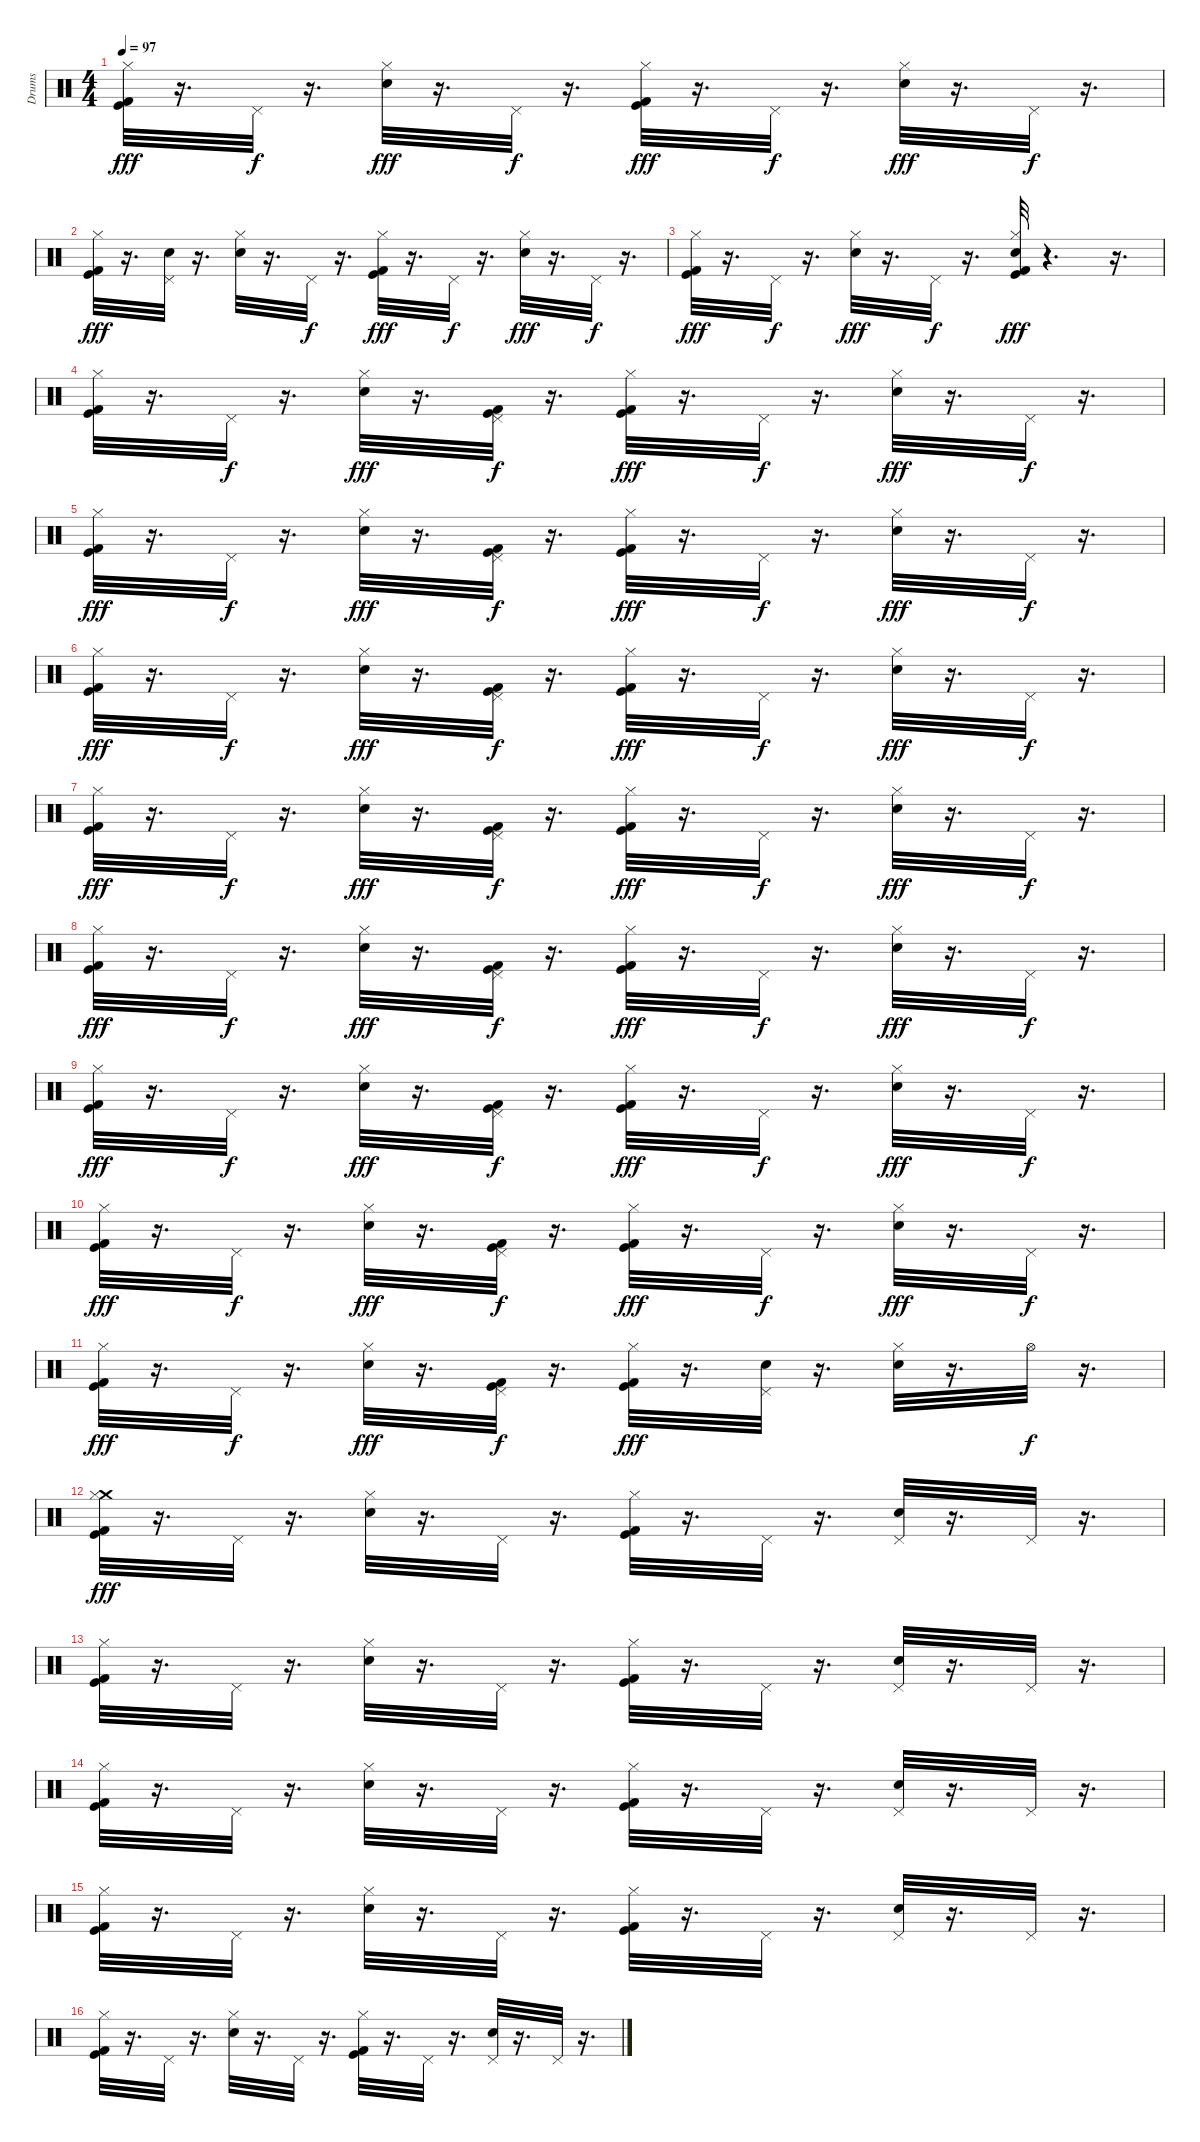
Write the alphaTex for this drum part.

\track ("Drums" "Drums") {instrument percussion}
\staff {score}
\articulation defaults
\ts (4 4)
\tempo 97
\clef neutral
\ks c
("Kick (hit)" "Kick (hit) 2" "Hi-Hat (closed)").32{dy fff} r.16{d} "Pedal Hi-Hat (hit)".32{dy f} r.16{d} ("Hi-Hat (closed)" "Snare (hit) 2").32{dy fff} r.16{d} "Pedal Hi-Hat (hit)".32{dy f} r.16{d} ("Kick (hit)" "Kick (hit) 2" "Hi-Hat (closed)").32{dy fff} r.16{d} "Pedal Hi-Hat (hit)".32{dy f} r.16{d} ("Hi-Hat (closed)" "Snare (hit) 2").32{dy fff} r.16{d} "Pedal Hi-Hat (hit)".32{dy f} r.16{d} |
("Kick (hit)" "Kick (hit) 2" "Hi-Hat (closed)").32{dy fff} r.16{d} ("Snare (hit) 2" "Pedal Hi-Hat (hit)").32 r.16{d} ("Hi-Hat (closed)" "Snare (hit) 2").32 r.16{d} "Pedal Hi-Hat (hit)".32{dy f} r.16{d} ("Kick (hit)" "Kick (hit) 2" "Hi-Hat (closed)").32{dy fff} r.16{d} "Pedal Hi-Hat (hit)".32{dy f} r.16{d} ("Hi-Hat (closed)" "Snare (hit) 2").32{dy fff} r.16{d} "Pedal Hi-Hat (hit)".32{dy f} r.16{d} |
("Kick (hit)" "Kick (hit) 2" "Hi-Hat (closed)").32{dy fff} r.16{d} "Pedal Hi-Hat (hit)".32{dy f} r.16{d} ("Hi-Hat (closed)" "Snare (hit) 2").32{dy fff} r.16{d} "Pedal Hi-Hat (hit)".32{dy f} r.16{d} ("Snare (hit) 2" "Kick (hit)" "Kick (hit) 2" "Hi-Hat (closed)").32{dy fff} r.4{d} r.16{d} |
("Kick (hit)" "Kick (hit) 2" "Hi-Hat (closed)").32 r.16{d} "Pedal Hi-Hat (hit)".32{dy f} r.16{d} ("Hi-Hat (closed)" "Snare (hit) 2").32{dy fff} r.16{d} ("Kick (hit) 2" "Kick (hit)" "Pedal Hi-Hat (hit)").32{dy f} r.16{d} ("Kick (hit)" "Kick (hit) 2" "Hi-Hat (closed)").32{dy fff} r.16{d} "Pedal Hi-Hat (hit)".32{dy f} r.16{d} ("Hi-Hat (closed)" "Snare (hit) 2").32{dy fff} r.16{d} "Pedal Hi-Hat (hit)".32{dy f} r.16{d} |
("Kick (hit)" "Kick (hit) 2" "Hi-Hat (closed)").32{dy fff} r.16{d} "Pedal Hi-Hat (hit)".32{dy f} r.16{d} ("Hi-Hat (closed)" "Snare (hit) 2").32{dy fff} r.16{d} ("Kick (hit) 2" "Kick (hit)" "Pedal Hi-Hat (hit)").32{dy f} r.16{d} ("Kick (hit)" "Kick (hit) 2" "Hi-Hat (closed)").32{dy fff} r.16{d} "Pedal Hi-Hat (hit)".32{dy f} r.16{d} ("Hi-Hat (closed)" "Snare (hit) 2").32{dy fff} r.16{d} "Pedal Hi-Hat (hit)".32{dy f} r.16{d} |
("Kick (hit)" "Kick (hit) 2" "Hi-Hat (closed)").32{dy fff} r.16{d} "Pedal Hi-Hat (hit)".32{dy f} r.16{d} ("Hi-Hat (closed)" "Snare (hit) 2").32{dy fff} r.16{d} ("Kick (hit) 2" "Kick (hit)" "Pedal Hi-Hat (hit)").32{dy f} r.16{d} ("Kick (hit)" "Kick (hit) 2" "Hi-Hat (closed)").32{dy fff} r.16{d} "Pedal Hi-Hat (hit)".32{dy f} r.16{d} ("Hi-Hat (closed)" "Snare (hit) 2").32{dy fff} r.16{d} "Pedal Hi-Hat (hit)".32{dy f} r.16{d} |
("Kick (hit)" "Kick (hit) 2" "Hi-Hat (closed)").32{dy fff} r.16{d} "Pedal Hi-Hat (hit)".32{dy f} r.16{d} ("Hi-Hat (closed)" "Snare (hit) 2").32{dy fff} r.16{d} ("Kick (hit) 2" "Kick (hit)" "Pedal Hi-Hat (hit)").32{dy f} r.16{d} ("Kick (hit)" "Kick (hit) 2" "Hi-Hat (closed)").32{dy fff} r.16{d} "Pedal Hi-Hat (hit)".32{dy f} r.16{d} ("Hi-Hat (closed)" "Snare (hit) 2").32{dy fff} r.16{d} "Pedal Hi-Hat (hit)".32{dy f} r.16{d} |
("Kick (hit)" "Kick (hit) 2" "Hi-Hat (closed)").32{dy fff} r.16{d} "Pedal Hi-Hat (hit)".32{dy f} r.16{d} ("Hi-Hat (closed)" "Snare (hit) 2").32{dy fff} r.16{d} ("Kick (hit) 2" "Kick (hit)" "Pedal Hi-Hat (hit)").32{dy f} r.16{d} ("Kick (hit)" "Kick (hit) 2" "Hi-Hat (closed)").32{dy fff} r.16{d} "Pedal Hi-Hat (hit)".32{dy f} r.16{d} ("Hi-Hat (closed)" "Snare (hit) 2").32{dy fff} r.16{d} "Pedal Hi-Hat (hit)".32{dy f} r.16{d} |
("Kick (hit)" "Kick (hit) 2" "Hi-Hat (closed)").32{dy fff} r.16{d} "Pedal Hi-Hat (hit)".32{dy f} r.16{d} ("Hi-Hat (closed)" "Snare (hit) 2").32{dy fff} r.16{d} ("Kick (hit) 2" "Kick (hit)" "Pedal Hi-Hat (hit)").32{dy f} r.16{d} ("Kick (hit)" "Kick (hit) 2" "Hi-Hat (closed)").32{dy fff} r.16{d} "Pedal Hi-Hat (hit)".32{dy f} r.16{d} ("Hi-Hat (closed)" "Snare (hit) 2").32{dy fff} r.16{d} "Pedal Hi-Hat (hit)".32{dy f} r.16{d} |
("Kick (hit)" "Kick (hit) 2" "Hi-Hat (closed)").32{dy fff} r.16{d} "Pedal Hi-Hat (hit)".32{dy f} r.16{d} ("Hi-Hat (closed)" "Snare (hit) 2").32{dy fff} r.16{d} ("Kick (hit) 2" "Kick (hit)" "Pedal Hi-Hat (hit)").32{dy f} r.16{d} ("Kick (hit)" "Kick (hit) 2" "Hi-Hat (closed)").32{dy fff} r.16{d} "Pedal Hi-Hat (hit)".32{dy f} r.16{d} ("Hi-Hat (closed)" "Snare (hit) 2").32{dy fff} r.16{d} "Pedal Hi-Hat (hit)".32{dy f} r.16{d} |
("Kick (hit)" "Kick (hit) 2" "Hi-Hat (closed)").32{dy fff} r.16{d} "Pedal Hi-Hat (hit)".32{dy f} r.16{d} ("Hi-Hat (closed)" "Snare (hit) 2").32{dy fff} r.16{d} ("Kick (hit) 2" "Kick (hit)" "Pedal Hi-Hat (hit)").32{dy f} r.16{d} ("Kick (hit)" "Kick (hit) 2" "Hi-Hat (closed)").32{dy fff} r.16{d} ("Snare (hit) 2" "Pedal Hi-Hat (hit)").32 r.16{d} ("Hi-Hat (closed)" "Snare (hit) 2").32 r.16{d} "Hi-Hat (open)".32{dy f} r.16{d} |
("Crash medium (hit)" "Kick (hit)" "Kick (hit) 2" "Hi-Hat (closed)").32{dy fff} r.16{d} "Pedal Hi-Hat (hit)".32 r.16{d} ("Hi-Hat (closed)" "Snare (hit) 2").32 r.16{d} "Pedal Hi-Hat (hit)".32 r.16{d} ("Kick (hit)" "Kick (hit) 2" "Hi-Hat (closed)").32 r.16{d} "Pedal Hi-Hat (hit)".32 r.16{d} ("Pedal Hi-Hat (hit)" "Snare (hit) 2").32 r.16{d} "Pedal Hi-Hat (hit)".32 r.16{d} |
("Kick (hit)" "Kick (hit) 2" "Hi-Hat (closed)").32 r.16{d} "Pedal Hi-Hat (hit)".32 r.16{d} ("Hi-Hat (closed)" "Snare (hit) 2").32 r.16{d} "Pedal Hi-Hat (hit)".32 r.16{d} ("Kick (hit)" "Kick (hit) 2" "Hi-Hat (closed)").32 r.16{d} "Pedal Hi-Hat (hit)".32 r.16{d} ("Pedal Hi-Hat (hit)" "Snare (hit) 2").32 r.16{d} "Pedal Hi-Hat (hit)".32 r.16{d} |
("Kick (hit)" "Kick (hit) 2" "Hi-Hat (closed)").32 r.16{d} "Pedal Hi-Hat (hit)".32 r.16{d} ("Hi-Hat (closed)" "Snare (hit) 2").32 r.16{d} "Pedal Hi-Hat (hit)".32 r.16{d} ("Kick (hit)" "Kick (hit) 2" "Hi-Hat (closed)").32 r.16{d} "Pedal Hi-Hat (hit)".32 r.16{d} ("Pedal Hi-Hat (hit)" "Snare (hit) 2").32 r.16{d} "Pedal Hi-Hat (hit)".32 r.16{d} |
("Kick (hit)" "Kick (hit) 2" "Hi-Hat (closed)").32 r.16{d} "Pedal Hi-Hat (hit)".32 r.16{d} ("Hi-Hat (closed)" "Snare (hit) 2").32 r.16{d} "Pedal Hi-Hat (hit)".32 r.16{d} ("Kick (hit)" "Kick (hit) 2" "Hi-Hat (closed)").32 r.16{d} "Pedal Hi-Hat (hit)".32 r.16{d} ("Pedal Hi-Hat (hit)" "Snare (hit) 2").32 r.16{d} "Pedal Hi-Hat (hit)".32 r.16{d} |
("Kick (hit)" "Kick (hit) 2" "Hi-Hat (closed)").32 r.16{d} "Pedal Hi-Hat (hit)".32 r.16{d} ("Hi-Hat (closed)" "Snare (hit) 2").32 r.16{d} "Pedal Hi-Hat (hit)".32 r.16{d} ("Kick (hit)" "Kick (hit) 2" "Hi-Hat (closed)").32 r.16{d} "Pedal Hi-Hat (hit)".32 r.16{d} ("Pedal Hi-Hat (hit)" "Snare (hit) 2").32 r.16{d} "Pedal Hi-Hat (hit)".32 r.16{d}
